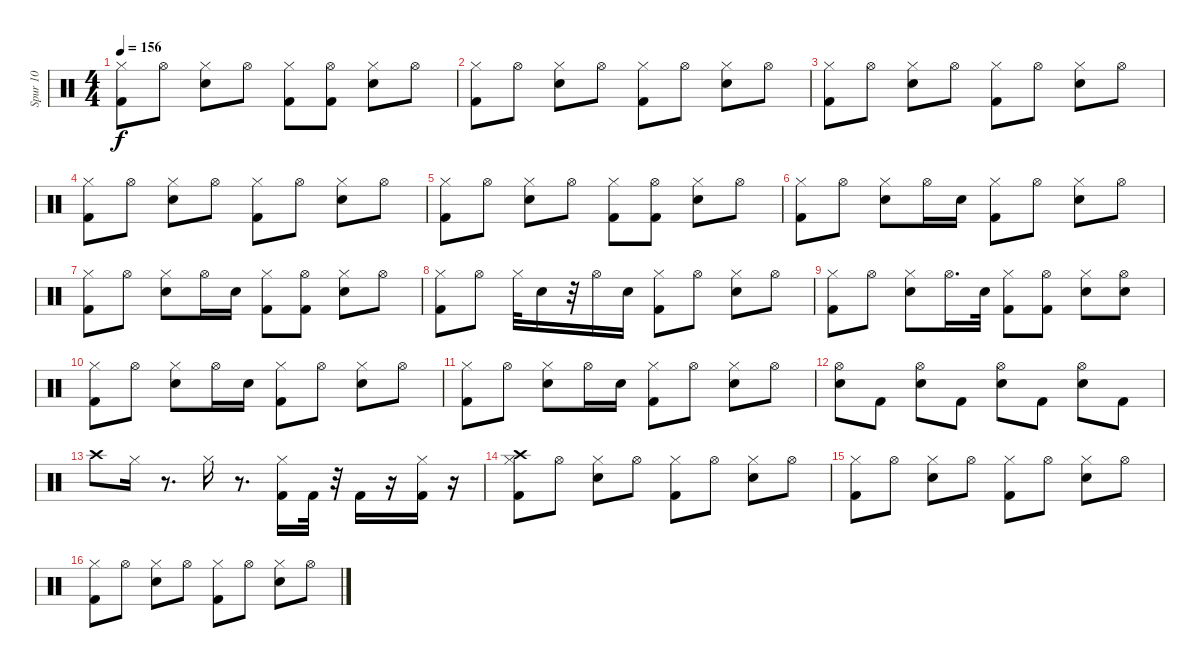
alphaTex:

\track ("Spur 10" "Spur 10") {instrument percussion}
\staff {score}
\articulation defaults
\ts (4 4)
\tempo 156
\clef neutral
\ks c
("Hi-Hat (closed)" "Kick (hit) 2").8{dy f} "Hi-Hat (open)".8 ("Hi-Hat (closed)" "Electric Snare (hit)").8 "Hi-Hat (open)".8 ("Hi-Hat (closed)" "Kick (hit) 2").8 ("Hi-Hat (open)" "Kick (hit) 2").8 ("Hi-Hat (closed)" "Electric Snare (hit)").8 "Hi-Hat (open)".8 |
("Hi-Hat (closed)" "Kick (hit) 2").8 "Hi-Hat (open)".8 ("Hi-Hat (closed)" "Electric Snare (hit)").8 "Hi-Hat (open)".8 ("Hi-Hat (closed)" "Kick (hit) 2").8 "Hi-Hat (open)".8 ("Hi-Hat (closed)" "Electric Snare (hit)").8 "Hi-Hat (open)".8 |
("Hi-Hat (closed)" "Kick (hit) 2").8 "Hi-Hat (open)".8 ("Hi-Hat (closed)" "Electric Snare (hit)").8 "Hi-Hat (open)".8 ("Hi-Hat (closed)" "Kick (hit) 2").8 "Hi-Hat (open)".8 ("Hi-Hat (closed)" "Electric Snare (hit)").8 "Hi-Hat (open)".8 |
("Hi-Hat (closed)" "Kick (hit) 2").8 "Hi-Hat (open)".8 ("Hi-Hat (closed)" "Electric Snare (hit)").8 "Hi-Hat (open)".8 ("Hi-Hat (closed)" "Kick (hit) 2").8 "Hi-Hat (open)".8 ("Hi-Hat (closed)" "Electric Snare (hit)").8 "Hi-Hat (open)".8 |
("Hi-Hat (closed)" "Kick (hit) 2").8 "Hi-Hat (open)".8 ("Hi-Hat (closed)" "Electric Snare (hit)").8 "Hi-Hat (open)".8 ("Hi-Hat (closed)" "Kick (hit) 2").8 ("Hi-Hat (open)" "Kick (hit) 2").8 ("Hi-Hat (closed)" "Electric Snare (hit)").8 "Hi-Hat (open)".8 |
("Hi-Hat (closed)" "Kick (hit) 2").8 "Hi-Hat (open)".8 ("Hi-Hat (closed)" "Electric Snare (hit)").8 "Hi-Hat (open)".16 "Electric Snare (hit)".16 ("Hi-Hat (closed)" "Kick (hit) 2").8 "Hi-Hat (open)".8 ("Hi-Hat (closed)" "Electric Snare (hit)").8 "Hi-Hat (open)".8 |
("Hi-Hat (closed)" "Kick (hit) 2").8 "Hi-Hat (open)".8 ("Hi-Hat (closed)" "Electric Snare (hit)").8 "Hi-Hat (open)".16 "Electric Snare (hit)".16 ("Hi-Hat (closed)" "Kick (hit) 2").8 ("Hi-Hat (open)" "Kick (hit) 2").8 ("Hi-Hat (closed)" "Electric Snare (hit)").8 "Hi-Hat (open)".8 |
("Hi-Hat (closed)" "Kick (hit) 2").8 "Hi-Hat (open)".8 "Hi-Hat (closed)".32 "Electric Snare (hit)".16 r.32 "Hi-Hat (open)".16 "Electric Snare (hit)".16 ("Hi-Hat (closed)" "Kick (hit) 2").8 "Hi-Hat (open)".8 ("Hi-Hat (closed)" "Electric Snare (hit)").8 "Hi-Hat (open)".8 |
("Hi-Hat (closed)" "Kick (hit) 2").8 "Hi-Hat (open)".8 ("Hi-Hat (closed)" "Electric Snare (hit)").8 "Hi-Hat (open)".16{d} "Electric Snare (hit)".32 ("Hi-Hat (closed)" "Kick (hit) 2").8 ("Hi-Hat (open)" "Kick (hit) 2").8 ("Hi-Hat (closed)" "Electric Snare (hit)").8 ("Hi-Hat (open)" "Electric Snare (hit)").8 |
("Hi-Hat (closed)" "Kick (hit) 2").8 "Hi-Hat (open)".8 ("Hi-Hat (closed)" "Electric Snare (hit)").8 "Hi-Hat (open)".16 "Electric Snare (hit)".16 ("Hi-Hat (closed)" "Kick (hit) 2").8 "Hi-Hat (open)".8 ("Hi-Hat (closed)" "Electric Snare (hit)").8 "Hi-Hat (open)".8 |
("Hi-Hat (closed)" "Kick (hit) 2").8 "Hi-Hat (open)".8 ("Hi-Hat (closed)" "Electric Snare (hit)").8 "Hi-Hat (open)".16 "Electric Snare (hit)".16 ("Hi-Hat (closed)" "Kick (hit) 2").8 "Hi-Hat (open)".8 ("Hi-Hat (closed)" "Electric Snare (hit)").8 "Hi-Hat (open)".8 |
("Electric Snare (hit)" "Hi-Hat (open)").8 "Kick (hit) 2".8 ("Electric Snare (hit)" "Hi-Hat (open)").8 "Kick (hit) 2".8 ("Electric Snare (hit)" "Hi-Hat (open)").8 "Kick (hit) 2".8 ("Electric Snare (hit)" "Hi-Hat (open)").8 "Kick (hit) 2".8 |
"Crash high (hit)".8 "Hi-Hat (closed)".16 r.8{d} "Hi-Hat (closed)".16 r.8{d} ("Kick (hit) 2" "Hi-Hat (closed)").16 "Kick (hit) 2".32 r.32 "Kick (hit) 2".16 r.16 ("Hi-Hat (closed)" "Kick (hit) 2").16 r.16 |
("Hi-Hat (closed)" "Kick (hit) 2" "Crash high (hit)").8 "Hi-Hat (open)".8 ("Hi-Hat (closed)" "Electric Snare (hit)").8 "Hi-Hat (open)".8 ("Hi-Hat (closed)" "Kick (hit) 2").8 "Hi-Hat (open)".8 ("Hi-Hat (closed)" "Electric Snare (hit)").8 "Hi-Hat (open)".8 |
("Hi-Hat (closed)" "Kick (hit) 2").8 "Hi-Hat (open)".8 ("Hi-Hat (closed)" "Electric Snare (hit)").8 "Hi-Hat (open)".8 ("Hi-Hat (closed)" "Kick (hit) 2").8 "Hi-Hat (open)".8 ("Hi-Hat (closed)" "Electric Snare (hit)").8 "Hi-Hat (open)".8 |
("Hi-Hat (closed)" "Kick (hit) 2").8 "Hi-Hat (open)".8 ("Hi-Hat (closed)" "Electric Snare (hit)").8 "Hi-Hat (open)".8 ("Hi-Hat (closed)" "Kick (hit) 2").8 "Hi-Hat (open)".8 ("Hi-Hat (closed)" "Electric Snare (hit)").8 "Hi-Hat (open)".8
